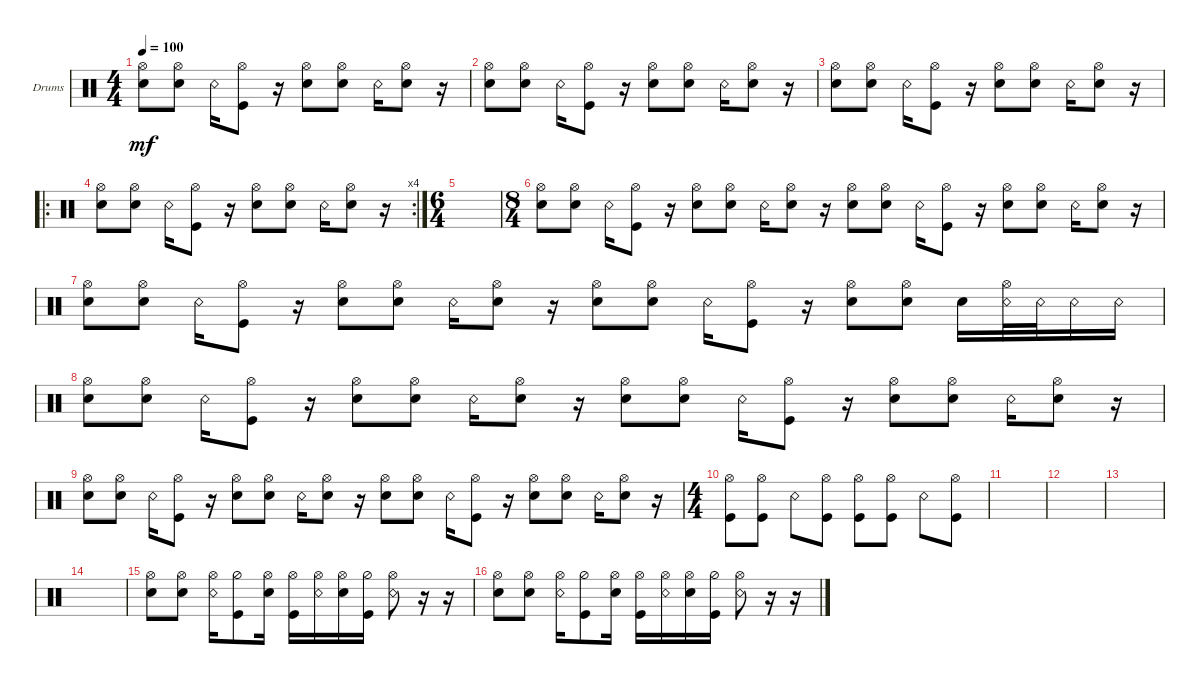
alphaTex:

\bracketExtendMode groupsimilarinstruments
\multiBarRest
\firstSystemTrackNameOrientation horizontal
\otherSystemsTrackNameOrientation horizontal
\track ("Rob" "Drums") {instrument percussion}
\staff {score}
\articulation defaults
\ts (4 4)
\tempo 100
\clef neutral
\ks c
("Snare (hit) 2" "Hi-Hat (open)").8{dy mf} ("Snare (hit) 2" "Hi-Hat (open)").8 "Snare (rim shot)".16 ("Kick (hit)" "Hi-Hat (open)").8 r.16 ("Snare (hit) 2" "Hi-Hat (open)").8 ("Snare (hit) 2" "Hi-Hat (open)").8 "Snare (rim shot)".16 ("Snare (hit) 2" "Hi-Hat (open)").8 r.16 |
("Snare (hit) 2" "Hi-Hat (open)").8 ("Snare (hit) 2" "Hi-Hat (open)").8 "Snare (rim shot)".16 ("Kick (hit)" "Hi-Hat (open)").8 r.16 ("Snare (hit) 2" "Hi-Hat (open)").8 ("Snare (hit) 2" "Hi-Hat (open)").8 "Snare (rim shot)".16 ("Snare (hit) 2" "Hi-Hat (open)").8 r.16 |
("Snare (hit) 2" "Hi-Hat (open)").8 ("Snare (hit) 2" "Hi-Hat (open)").8 "Snare (rim shot)".16 ("Kick (hit)" "Hi-Hat (open)").8 r.16 ("Snare (hit) 2" "Hi-Hat (open)").8 ("Snare (hit) 2" "Hi-Hat (open)").8 "Snare (rim shot)".16 ("Snare (hit) 2" "Hi-Hat (open)").8 r.16 |
\ro
\rc 4
("Snare (hit) 2" "Hi-Hat (open)").8 ("Snare (hit) 2" "Hi-Hat (open)").8 "Snare (rim shot)".16 ("Kick (hit)" "Hi-Hat (open)").8 r.16 ("Snare (hit) 2" "Hi-Hat (open)").8 ("Snare (hit) 2" "Hi-Hat (open)").8 "Snare (rim shot)".16 ("Snare (hit) 2" "Hi-Hat (open)").8 r.16 |
\ts (6 4)
|
\ts (8 4)
("Snare (hit) 2" "Hi-Hat (open)").8 ("Snare (hit) 2" "Hi-Hat (open)").8 "Snare (rim shot)".16 ("Kick (hit)" "Hi-Hat (open)").8 r.16 ("Snare (hit) 2" "Hi-Hat (open)").8 ("Snare (hit) 2" "Hi-Hat (open)").8 "Snare (rim shot)".16 ("Snare (hit) 2" "Hi-Hat (open)").8 r.16 ("Snare (hit) 2" "Hi-Hat (open)").8 ("Snare (hit) 2" "Hi-Hat (open)").8 "Snare (rim shot)".16 ("Kick (hit)" "Hi-Hat (open)").8 r.16 ("Snare (hit) 2" "Hi-Hat (open)").8 ("Snare (hit) 2" "Hi-Hat (open)").8 "Snare (rim shot)".16 ("Snare (hit) 2" "Hi-Hat (open)").8 r.16 |
("Snare (hit) 2" "Hi-Hat (open)").8 ("Snare (hit) 2" "Hi-Hat (open)").8 "Snare (rim shot)".16 ("Kick (hit)" "Hi-Hat (open)").8 r.16 ("Snare (hit) 2" "Hi-Hat (open)").8 ("Snare (hit) 2" "Hi-Hat (open)").8 "Snare (rim shot)".16 ("Snare (hit) 2" "Hi-Hat (open)").8 r.16 ("Snare (hit) 2" "Hi-Hat (open)").8 ("Snare (hit) 2" "Hi-Hat (open)").8 "Snare (rim shot)".16 ("Kick (hit)" "Hi-Hat (open)").8 r.16 ("Snare (hit) 2" "Hi-Hat (open)").8 ("Snare (hit) 2" "Hi-Hat (open)").8 "Snare (hit) 2".16 ("Snare (rim shot)" "Hi-Hat (open)").32 "Snare (rim shot)".32 "Snare (rim shot)".16 "Snare (rim shot)".16 |
("Snare (hit) 2" "Hi-Hat (open)").8 ("Snare (hit) 2" "Hi-Hat (open)").8 "Snare (rim shot)".16 ("Kick (hit)" "Hi-Hat (open)").8 r.16 ("Snare (hit) 2" "Hi-Hat (open)").8 ("Snare (hit) 2" "Hi-Hat (open)").8 "Snare (rim shot)".16 ("Snare (hit) 2" "Hi-Hat (open)").8 r.16 ("Snare (hit) 2" "Hi-Hat (open)").8 ("Snare (hit) 2" "Hi-Hat (open)").8 "Snare (rim shot)".16 ("Kick (hit)" "Hi-Hat (open)").8 r.16 ("Snare (hit) 2" "Hi-Hat (open)").8 ("Snare (hit) 2" "Hi-Hat (open)").8 "Snare (rim shot)".16 ("Snare (hit) 2" "Hi-Hat (open)").8 r.16 |
("Snare (hit) 2" "Hi-Hat (open)").8 ("Snare (hit) 2" "Hi-Hat (open)").8 "Snare (rim shot)".16 ("Kick (hit)" "Hi-Hat (open)").8 r.16 ("Snare (hit) 2" "Hi-Hat (open)").8 ("Snare (hit) 2" "Hi-Hat (open)").8 "Snare (rim shot)".16 ("Snare (hit) 2" "Hi-Hat (open)").8 r.16 ("Snare (hit) 2" "Hi-Hat (open)").8 ("Snare (hit) 2" "Hi-Hat (open)").8 "Snare (rim shot)".16 ("Kick (hit)" "Hi-Hat (open)").8 r.16 ("Snare (hit) 2" "Hi-Hat (open)").8 ("Snare (hit) 2" "Hi-Hat (open)").8 "Snare (rim shot)".16 ("Snare (hit) 2" "Hi-Hat (open)").8 r.16 |
\ts (4 4)
("Kick (hit)" "Hi-Hat (open)").8 ("Kick (hit)" "Hi-Hat (open)").8 "Snare (rim shot)".8 ("Kick (hit)" "Hi-Hat (open)").8 ("Kick (hit)" "Hi-Hat (open)").8 ("Kick (hit)" "Hi-Hat (open)").8 "Snare (rim shot)".8 ("Kick (hit)" "Hi-Hat (open)").8 |
|
|
|
|
("Snare (hit) 2" "Hi-Hat (open)").8 ("Snare (hit) 2" "Hi-Hat (open)").8 ("Snare (rim shot)" "Hi-Hat (open)").16 ("Kick (hit)" "Hi-Hat (half)").8 ("Snare (hit) 2" "Hi-Hat (open)").16 ("Kick (hit)" "Hi-Hat (open)").16 ("Snare (rim shot)" "Hi-Hat (open)").16 ("Snare (hit) 2" "Hi-Hat (open)").16 ("Kick (hit)" "Hi-Hat (half)").16 ("Snare (rim shot)" "Hi-Hat (open)").8 r.16 r.16 |
("Snare (hit) 2" "Hi-Hat (open)").8 ("Snare (hit) 2" "Hi-Hat (open)").8 ("Snare (rim shot)" "Hi-Hat (open)").16 ("Kick (hit)" "Hi-Hat (half)").8 ("Snare (hit) 2" "Hi-Hat (open)").16 ("Kick (hit)" "Hi-Hat (open)").16 ("Snare (rim shot)" "Hi-Hat (open)").16 ("Snare (hit) 2" "Hi-Hat (open)").16 ("Kick (hit)" "Hi-Hat (half)").16 ("Snare (rim shot)" "Hi-Hat (open)").8 r.16 r.16
